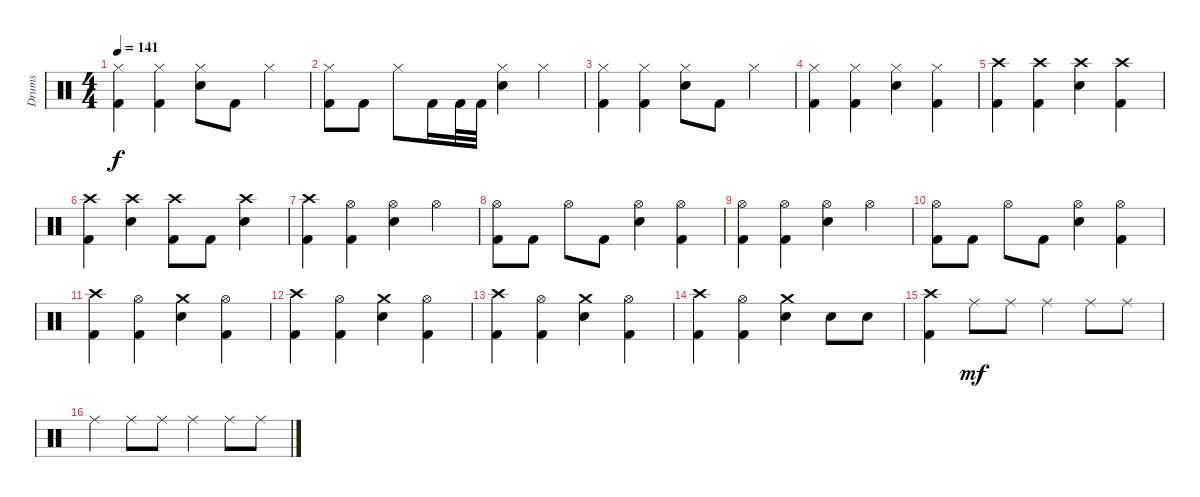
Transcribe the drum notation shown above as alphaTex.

\track ("Drums" "Drums") {instrument percussion}
\staff {score}
\articulation defaults
\ts (4 4)
\tempo 141
\clef neutral
\ks c
("Hi-Hat (closed)" "Kick (hit) 2").4{dy f} ("Hi-Hat (closed)" "Kick (hit) 2").4 ("Hi-Hat (closed)" "Snare (hit) 2").8 "Kick (hit) 2".8 "Hi-Hat (closed)".4 |
("Hi-Hat (closed)" "Kick (hit) 2").8 "Kick (hit) 2".8 "Hi-Hat (closed)".8 "Kick (hit) 2".16 "Kick (hit) 2".32 "Kick (hit) 2".32 ("Hi-Hat (closed)" "Snare (hit) 2").4 "Hi-Hat (closed)".4 |
("Hi-Hat (closed)" "Kick (hit) 2").4 ("Hi-Hat (closed)" "Kick (hit) 2").4 ("Hi-Hat (closed)" "Snare (hit) 2").8 "Kick (hit) 2".8 "Hi-Hat (closed)".4 |
("Hi-Hat (closed)" "Kick (hit) 2").4 ("Hi-Hat (closed)" "Kick (hit) 2").4 ("Hi-Hat (closed)" "Snare (hit) 2").4 ("Hi-Hat (closed)" "Kick (hit) 2").4 |
("Crash high (hit)" "Kick (hit) 2").4 ("Crash high (hit)" "Kick (hit) 2").4 ("Crash high (hit)" "Snare (hit) 2").4 ("Crash high (hit)" "Kick (hit) 2").4 |
("Crash high (hit)" "Kick (hit) 2").4 ("Crash high (hit)" "Snare (hit) 2").4 ("Crash high (hit)" "Kick (hit) 2").8 "Kick (hit) 2".8 ("Crash high (hit)" "Snare (hit) 2").4 |
("Crash high (hit)" "Kick (hit) 2").4 ("Hi-Hat (open)" "Kick (hit) 2").4 ("Hi-Hat (open)" "Snare (hit) 2").4 "Hi-Hat (open)".4 |
("Hi-Hat (open)" "Kick (hit) 2").8 "Kick (hit) 2".8 "Hi-Hat (open)".8 "Kick (hit) 2".8 ("Hi-Hat (open)" "Snare (hit) 2").4 ("Hi-Hat (open)" "Kick (hit) 2").4 |
("Hi-Hat (open)" "Kick (hit) 2").4 ("Hi-Hat (open)" "Kick (hit) 2").4 ("Hi-Hat (open)" "Snare (hit) 2").4 "Hi-Hat (open)".4 |
("Hi-Hat (open)" "Kick (hit) 2").8 "Kick (hit) 2".8 "Hi-Hat (open)".8 "Kick (hit) 2".8 ("Hi-Hat (open)" "Snare (hit) 2").4 ("Hi-Hat (open)" "Kick (hit) 2").4 |
("Crash high (hit)" "Kick (hit) 2").4 ("Hi-Hat (open)" "Kick (hit) 2").4 ("Crash medium (hit)" "Snare (hit) 2").4 ("Hi-Hat (open)" "Kick (hit) 2").4 |
("Crash high (hit)" "Kick (hit) 2").4 ("Hi-Hat (open)" "Kick (hit) 2").4 ("Crash medium (hit)" "Snare (hit) 2").4 ("Hi-Hat (open)" "Kick (hit) 2").4 |
("Crash high (hit)" "Kick (hit) 2").4 ("Hi-Hat (open)" "Kick (hit) 2").4 ("Crash medium (hit)" "Snare (hit) 2").4 ("Hi-Hat (open)" "Kick (hit) 2").4 |
("Crash high (hit)" "Kick (hit) 2").4 ("Hi-Hat (open)" "Kick (hit) 2").4 ("Crash medium (hit)" "Snare (hit) 2").4 "Snare (hit) 2".8 "Snare (hit) 2".8 |
("Crash high (hit)" "Kick (hit) 2").4 "Ride (middle)".8{dy mf} "Ride (middle)".8 "Ride (middle)".4 "Ride (middle)".8 "Ride (middle)".8 |
"Ride (middle)".4 "Ride (middle)".8 "Ride (middle)".8 "Ride (middle)".4 "Ride (middle)".8 "Ride (middle)".8
